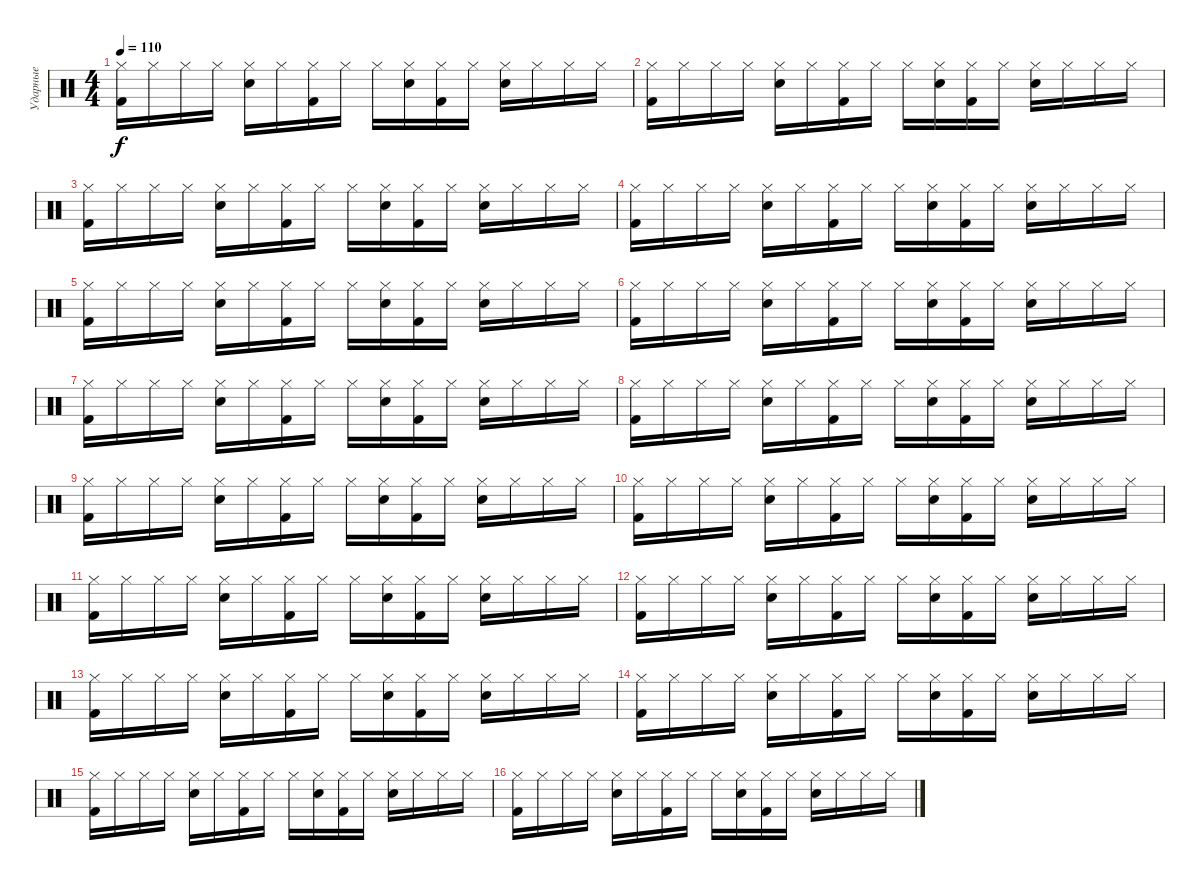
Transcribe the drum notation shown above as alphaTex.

\track ("Ударные" "Ударные") {instrument percussion}
\staff {score}
\articulation defaults
\ts (4 4)
\tempo 110
\clef neutral
\ks c
("Hi-Hat (closed)" "Kick (hit) 2").16{dy f} "Hi-Hat (closed)".16 "Hi-Hat (closed)".16 "Hi-Hat (closed)".16 ("Hi-Hat (closed)" "Snare (hit) 2").16 "Hi-Hat (closed)".16 ("Hi-Hat (closed)" "Kick (hit) 2").16 "Hi-Hat (closed)".16 "Hi-Hat (closed)".16 ("Hi-Hat (closed)" "Snare (hit) 2").16 ("Hi-Hat (closed)" "Kick (hit) 2").16 "Hi-Hat (closed)".16 ("Hi-Hat (closed)" "Snare (hit) 2").16 "Hi-Hat (closed)".16 "Hi-Hat (closed)".16 "Hi-Hat (closed)".16 |
("Hi-Hat (closed)" "Kick (hit) 2").16 "Hi-Hat (closed)".16 "Hi-Hat (closed)".16 "Hi-Hat (closed)".16 ("Hi-Hat (closed)" "Snare (hit) 2").16 "Hi-Hat (closed)".16 ("Hi-Hat (closed)" "Kick (hit) 2").16 "Hi-Hat (closed)".16 "Hi-Hat (closed)".16 ("Hi-Hat (closed)" "Snare (hit) 2").16 ("Hi-Hat (closed)" "Kick (hit) 2").16 "Hi-Hat (closed)".16 ("Hi-Hat (closed)" "Snare (hit) 2").16 "Hi-Hat (closed)".16 "Hi-Hat (closed)".16 "Hi-Hat (closed)".16 |
("Hi-Hat (closed)" "Kick (hit) 2").16 "Hi-Hat (closed)".16 "Hi-Hat (closed)".16 "Hi-Hat (closed)".16 ("Hi-Hat (closed)" "Snare (hit) 2").16 "Hi-Hat (closed)".16 ("Hi-Hat (closed)" "Kick (hit) 2").16 "Hi-Hat (closed)".16 "Hi-Hat (closed)".16 ("Hi-Hat (closed)" "Snare (hit) 2").16 ("Hi-Hat (closed)" "Kick (hit) 2").16 "Hi-Hat (closed)".16 ("Hi-Hat (closed)" "Snare (hit) 2").16 "Hi-Hat (closed)".16 "Hi-Hat (closed)".16 "Hi-Hat (closed)".16 |
("Hi-Hat (closed)" "Kick (hit) 2").16 "Hi-Hat (closed)".16 "Hi-Hat (closed)".16 "Hi-Hat (closed)".16 ("Hi-Hat (closed)" "Snare (hit) 2").16 "Hi-Hat (closed)".16 ("Hi-Hat (closed)" "Kick (hit) 2").16 "Hi-Hat (closed)".16 "Hi-Hat (closed)".16 ("Hi-Hat (closed)" "Snare (hit) 2").16 ("Hi-Hat (closed)" "Kick (hit) 2").16 "Hi-Hat (closed)".16 ("Hi-Hat (closed)" "Snare (hit) 2").16 "Hi-Hat (closed)".16 "Hi-Hat (closed)".16 "Hi-Hat (closed)".16 |
("Hi-Hat (closed)" "Kick (hit) 2").16 "Hi-Hat (closed)".16 "Hi-Hat (closed)".16 "Hi-Hat (closed)".16 ("Hi-Hat (closed)" "Snare (hit) 2").16 "Hi-Hat (closed)".16 ("Hi-Hat (closed)" "Kick (hit) 2").16 "Hi-Hat (closed)".16 "Hi-Hat (closed)".16 ("Hi-Hat (closed)" "Snare (hit) 2").16 ("Hi-Hat (closed)" "Kick (hit) 2").16 "Hi-Hat (closed)".16 ("Hi-Hat (closed)" "Snare (hit) 2").16 "Hi-Hat (closed)".16 "Hi-Hat (closed)".16 "Hi-Hat (closed)".16 |
("Hi-Hat (closed)" "Kick (hit) 2").16 "Hi-Hat (closed)".16 "Hi-Hat (closed)".16 "Hi-Hat (closed)".16 ("Hi-Hat (closed)" "Snare (hit) 2").16 "Hi-Hat (closed)".16 ("Hi-Hat (closed)" "Kick (hit) 2").16 "Hi-Hat (closed)".16 "Hi-Hat (closed)".16 ("Hi-Hat (closed)" "Snare (hit) 2").16 ("Hi-Hat (closed)" "Kick (hit) 2").16 "Hi-Hat (closed)".16 ("Hi-Hat (closed)" "Snare (hit) 2").16 "Hi-Hat (closed)".16 "Hi-Hat (closed)".16 "Hi-Hat (closed)".16 |
("Hi-Hat (closed)" "Kick (hit) 2").16 "Hi-Hat (closed)".16 "Hi-Hat (closed)".16 "Hi-Hat (closed)".16 ("Hi-Hat (closed)" "Snare (hit) 2").16 "Hi-Hat (closed)".16 ("Hi-Hat (closed)" "Kick (hit) 2").16 "Hi-Hat (closed)".16 "Hi-Hat (closed)".16 ("Hi-Hat (closed)" "Snare (hit) 2").16 ("Hi-Hat (closed)" "Kick (hit) 2").16 "Hi-Hat (closed)".16 ("Hi-Hat (closed)" "Snare (hit) 2").16 "Hi-Hat (closed)".16 "Hi-Hat (closed)".16 "Hi-Hat (closed)".16 |
("Hi-Hat (closed)" "Kick (hit) 2").16 "Hi-Hat (closed)".16 "Hi-Hat (closed)".16 "Hi-Hat (closed)".16 ("Hi-Hat (closed)" "Snare (hit) 2").16 "Hi-Hat (closed)".16 ("Hi-Hat (closed)" "Kick (hit) 2").16 "Hi-Hat (closed)".16 "Hi-Hat (closed)".16 ("Hi-Hat (closed)" "Snare (hit) 2").16 ("Hi-Hat (closed)" "Kick (hit) 2").16 "Hi-Hat (closed)".16 ("Hi-Hat (closed)" "Snare (hit) 2").16 "Hi-Hat (closed)".16 "Hi-Hat (closed)".16 "Hi-Hat (closed)".16 |
("Hi-Hat (closed)" "Kick (hit) 2").16 "Hi-Hat (closed)".16 "Hi-Hat (closed)".16 "Hi-Hat (closed)".16 ("Hi-Hat (closed)" "Snare (hit) 2").16 "Hi-Hat (closed)".16 ("Hi-Hat (closed)" "Kick (hit) 2").16 "Hi-Hat (closed)".16 "Hi-Hat (closed)".16 ("Hi-Hat (closed)" "Snare (hit) 2").16 ("Hi-Hat (closed)" "Kick (hit) 2").16 "Hi-Hat (closed)".16 ("Hi-Hat (closed)" "Snare (hit) 2").16 "Hi-Hat (closed)".16 "Hi-Hat (closed)".16 "Hi-Hat (closed)".16 |
("Hi-Hat (closed)" "Kick (hit) 2").16 "Hi-Hat (closed)".16 "Hi-Hat (closed)".16 "Hi-Hat (closed)".16 ("Hi-Hat (closed)" "Snare (hit) 2").16 "Hi-Hat (closed)".16 ("Hi-Hat (closed)" "Kick (hit) 2").16 "Hi-Hat (closed)".16 "Hi-Hat (closed)".16 ("Hi-Hat (closed)" "Snare (hit) 2").16 ("Hi-Hat (closed)" "Kick (hit) 2").16 "Hi-Hat (closed)".16 ("Hi-Hat (closed)" "Snare (hit) 2").16 "Hi-Hat (closed)".16 "Hi-Hat (closed)".16 "Hi-Hat (closed)".16 |
("Hi-Hat (closed)" "Kick (hit) 2").16 "Hi-Hat (closed)".16 "Hi-Hat (closed)".16 "Hi-Hat (closed)".16 ("Hi-Hat (closed)" "Snare (hit) 2").16 "Hi-Hat (closed)".16 ("Hi-Hat (closed)" "Kick (hit) 2").16 "Hi-Hat (closed)".16 "Hi-Hat (closed)".16 ("Hi-Hat (closed)" "Snare (hit) 2").16 ("Hi-Hat (closed)" "Kick (hit) 2").16 "Hi-Hat (closed)".16 ("Hi-Hat (closed)" "Snare (hit) 2").16 "Hi-Hat (closed)".16 "Hi-Hat (closed)".16 "Hi-Hat (closed)".16 |
("Hi-Hat (closed)" "Kick (hit) 2").16 "Hi-Hat (closed)".16 "Hi-Hat (closed)".16 "Hi-Hat (closed)".16 ("Hi-Hat (closed)" "Snare (hit) 2").16 "Hi-Hat (closed)".16 ("Hi-Hat (closed)" "Kick (hit) 2").16 "Hi-Hat (closed)".16 "Hi-Hat (closed)".16 ("Hi-Hat (closed)" "Snare (hit) 2").16 ("Hi-Hat (closed)" "Kick (hit) 2").16 "Hi-Hat (closed)".16 ("Hi-Hat (closed)" "Snare (hit) 2").16 "Hi-Hat (closed)".16 "Hi-Hat (closed)".16 "Hi-Hat (closed)".16 |
("Hi-Hat (closed)" "Kick (hit) 2").16 "Hi-Hat (closed)".16 "Hi-Hat (closed)".16 "Hi-Hat (closed)".16 ("Hi-Hat (closed)" "Snare (hit) 2").16 "Hi-Hat (closed)".16 ("Hi-Hat (closed)" "Kick (hit) 2").16 "Hi-Hat (closed)".16 "Hi-Hat (closed)".16 ("Hi-Hat (closed)" "Snare (hit) 2").16 ("Hi-Hat (closed)" "Kick (hit) 2").16 "Hi-Hat (closed)".16 ("Hi-Hat (closed)" "Snare (hit) 2").16 "Hi-Hat (closed)".16 "Hi-Hat (closed)".16 "Hi-Hat (closed)".16 |
("Hi-Hat (closed)" "Kick (hit) 2").16 "Hi-Hat (closed)".16 "Hi-Hat (closed)".16 "Hi-Hat (closed)".16 ("Hi-Hat (closed)" "Snare (hit) 2").16 "Hi-Hat (closed)".16 ("Hi-Hat (closed)" "Kick (hit) 2").16 "Hi-Hat (closed)".16 "Hi-Hat (closed)".16 ("Hi-Hat (closed)" "Snare (hit) 2").16 ("Hi-Hat (closed)" "Kick (hit) 2").16 "Hi-Hat (closed)".16 ("Hi-Hat (closed)" "Snare (hit) 2").16 "Hi-Hat (closed)".16 "Hi-Hat (closed)".16 "Hi-Hat (closed)".16 |
("Hi-Hat (closed)" "Kick (hit) 2").16 "Hi-Hat (closed)".16 "Hi-Hat (closed)".16 "Hi-Hat (closed)".16 ("Hi-Hat (closed)" "Snare (hit) 2").16 "Hi-Hat (closed)".16 ("Hi-Hat (closed)" "Kick (hit) 2").16 "Hi-Hat (closed)".16 "Hi-Hat (closed)".16 ("Hi-Hat (closed)" "Snare (hit) 2").16 ("Hi-Hat (closed)" "Kick (hit) 2").16 "Hi-Hat (closed)".16 ("Hi-Hat (closed)" "Snare (hit) 2").16 "Hi-Hat (closed)".16 "Hi-Hat (closed)".16 "Hi-Hat (closed)".16 |
("Hi-Hat (closed)" "Kick (hit) 2").16 "Hi-Hat (closed)".16 "Hi-Hat (closed)".16 "Hi-Hat (closed)".16 ("Hi-Hat (closed)" "Snare (hit) 2").16 "Hi-Hat (closed)".16 ("Hi-Hat (closed)" "Kick (hit) 2").16 "Hi-Hat (closed)".16 "Hi-Hat (closed)".16 ("Hi-Hat (closed)" "Snare (hit) 2").16 ("Hi-Hat (closed)" "Kick (hit) 2").16 "Hi-Hat (closed)".16 ("Hi-Hat (closed)" "Snare (hit) 2").16 "Hi-Hat (closed)".16 "Hi-Hat (closed)".16 "Hi-Hat (closed)".16
